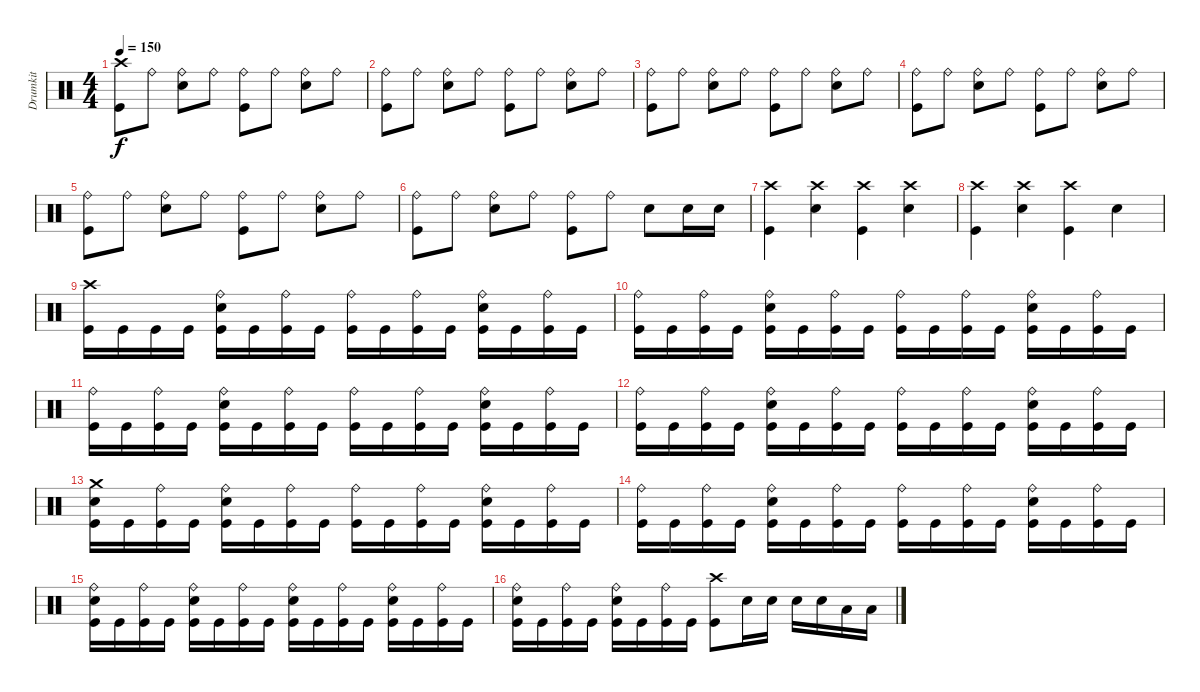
\track ("Drumkit" "Drumkit") {instrument percussion}
\staff {score}
\articulation defaults
\ts (4 4)
\tempo 150
\clef neutral
\ks c
("Crash high (hit)" "Kick (hit)").8{dy f} "Ride (bell)".8 ("Ride (bell)" "Snare (hit) 2").8 "Ride (bell)".8 ("Ride (bell)" "Kick (hit)").8 "Ride (bell)".8 ("Ride (bell)" "Snare (hit) 2").8 "Ride (bell)".8 |
("Ride (bell)" "Kick (hit)").8 "Ride (bell)".8 ("Ride (bell)" "Snare (hit) 2").8 "Ride (bell)".8 ("Ride (bell)" "Kick (hit)").8 "Ride (bell)".8 ("Ride (bell)" "Snare (hit) 2").8 "Ride (bell)".8 |
("Ride (bell)" "Kick (hit)").8 "Ride (bell)".8 ("Ride (bell)" "Snare (hit) 2").8 "Ride (bell)".8 ("Ride (bell)" "Kick (hit)").8 "Ride (bell)".8 ("Ride (bell)" "Snare (hit) 2").8 "Ride (bell)".8 |
("Ride (bell)" "Kick (hit)").8 "Ride (bell)".8 ("Ride (bell)" "Snare (hit) 2").8 "Ride (bell)".8 ("Ride (bell)" "Kick (hit)").8 "Ride (bell)".8 ("Ride (bell)" "Snare (hit) 2").8 "Ride (bell)".8 |
("Ride (bell)" "Kick (hit)").8 "Ride (bell)".8 ("Ride (bell)" "Snare (hit) 2").8 "Ride (bell)".8 ("Ride (bell)" "Kick (hit)").8 "Ride (bell)".8 ("Ride (bell)" "Snare (hit) 2").8 "Ride (bell)".8 |
("Ride (bell)" "Kick (hit)").8 "Ride (bell)".8 ("Ride (bell)" "Snare (hit) 2").8 "Ride (bell)".8 ("Ride (bell)" "Kick (hit)").8 "Ride (bell)".8 "Snare (hit) 2".8 "Snare (hit) 2".16 "Snare (hit) 2".16 |
("Crash high (hit)" "Kick (hit)").4 ("Crash high (hit)" "Snare (hit) 2").4 ("Crash high (hit)" "Kick (hit)").4 ("Crash high (hit)" "Snare (hit) 2").4 |
("Crash high (hit)" "Kick (hit)").4 ("Crash high (hit)" "Snare (hit) 2").4 ("Crash high (hit)" "Kick (hit)").4 "Snare (hit) 2".4 |
("Crash high (hit)" "Kick (hit)").16 "Kick (hit)".16 "Kick (hit)".16 "Kick (hit)".16 ("Ride (bell)" "Snare (hit) 2" "Kick (hit)").16 "Kick (hit)".16 ("Ride (bell)" "Kick (hit)").16 "Kick (hit)".16 ("Ride (bell)" "Kick (hit)").16 "Kick (hit)".16 ("Ride (bell)" "Kick (hit)").16 "Kick (hit)".16 ("Ride (bell)" "Snare (hit) 2" "Kick (hit)").16 "Kick (hit)".16 ("Ride (bell)" "Kick (hit)").16 "Kick (hit)".16 |
("Ride (bell)" "Kick (hit)").16 "Kick (hit)".16 ("Ride (bell)" "Kick (hit)").16 "Kick (hit)".16 ("Ride (bell)" "Snare (hit) 2" "Kick (hit)").16 "Kick (hit)".16 ("Ride (bell)" "Kick (hit)").16 "Kick (hit)".16 ("Ride (bell)" "Kick (hit)").16 "Kick (hit)".16 ("Ride (bell)" "Kick (hit)").16 "Kick (hit)".16 ("Ride (bell)" "Snare (hit) 2" "Kick (hit)").16 "Kick (hit)".16 ("Ride (bell)" "Kick (hit)").16 "Kick (hit)".16 |
("Ride (bell)" "Kick (hit)").16 "Kick (hit)".16 ("Ride (bell)" "Kick (hit)").16 "Kick (hit)".16 ("Ride (bell)" "Snare (hit) 2" "Kick (hit)").16 "Kick (hit)".16 ("Ride (bell)" "Kick (hit)").16 "Kick (hit)".16 ("Ride (bell)" "Kick (hit)").16 "Kick (hit)".16 ("Ride (bell)" "Kick (hit)").16 "Kick (hit)".16 ("Ride (bell)" "Snare (hit) 2" "Kick (hit)").16 "Kick (hit)".16 ("Ride (bell)" "Kick (hit)").16 "Kick (hit)".16 |
("Ride (bell)" "Kick (hit)").16 "Kick (hit)".16 ("Ride (bell)" "Kick (hit)").16 "Kick (hit)".16 ("Ride (bell)" "Snare (hit) 2" "Kick (hit)").16 "Kick (hit)".16 ("Ride (bell)" "Kick (hit)").16 "Kick (hit)".16 ("Ride (bell)" "Kick (hit)").16 "Kick (hit)".16 ("Ride (bell)" "Kick (hit)").16 "Kick (hit)".16 ("Ride (bell)" "Snare (hit) 2" "Kick (hit)").16 "Kick (hit)".16 ("Ride (bell)" "Kick (hit)").16 "Kick (hit)".16 |
("Crash medium (hit)" "Snare (hit) 2" "Kick (hit)").16 "Kick (hit)".16 ("Ride (bell)" "Kick (hit)").16 "Kick (hit)".16 ("Ride (bell)" "Snare (hit) 2" "Kick (hit)").16 "Kick (hit)".16 ("Ride (bell)" "Kick (hit)").16 "Kick (hit)".16 ("Ride (bell)" "Kick (hit)").16 "Kick (hit)".16 ("Ride (bell)" "Kick (hit)").16 "Kick (hit)".16 ("Ride (bell)" "Snare (hit) 2" "Kick (hit)").16 "Kick (hit)".16 ("Ride (bell)" "Kick (hit)").16 "Kick (hit)".16 |
("Ride (bell)" "Kick (hit)").16 "Kick (hit)".16 ("Ride (bell)" "Kick (hit)").16 "Kick (hit)".16 ("Ride (bell)" "Snare (hit) 2" "Kick (hit)").16 "Kick (hit)".16 ("Ride (bell)" "Kick (hit)").16 "Kick (hit)".16 ("Ride (bell)" "Kick (hit)").16 "Kick (hit)".16 ("Ride (bell)" "Kick (hit)").16 "Kick (hit)".16 ("Ride (bell)" "Snare (hit) 2" "Kick (hit)").16 "Kick (hit)".16 ("Ride (bell)" "Kick (hit)").16 "Kick (hit)".16 |
("Ride (bell)" "Snare (hit) 2" "Kick (hit)").16 "Kick (hit)".16 ("Ride (bell)" "Kick (hit)").16 "Kick (hit)".16 ("Ride (bell)" "Snare (hit) 2" "Kick (hit)").16 "Kick (hit)".16 ("Ride (bell)" "Kick (hit)").16 "Kick (hit)".16 ("Ride (bell)" "Snare (hit) 2" "Kick (hit)").16 "Kick (hit)".16 ("Ride (bell)" "Kick (hit)").16 "Kick (hit)".16 ("Ride (bell)" "Snare (hit) 2" "Kick (hit)").16 "Kick (hit)".16 ("Ride (bell)" "Kick (hit)").16 "Kick (hit)".16 |
("Ride (bell)" "Snare (hit) 2" "Kick (hit)").16 "Kick (hit)".16 ("Ride (bell)" "Kick (hit)").16 "Kick (hit)".16 ("Ride (bell)" "Snare (hit) 2" "Kick (hit)").16 "Kick (hit)".16 ("Ride (bell)" "Kick (hit)").16 "Kick (hit)".16 ("Crash high (hit)" "Kick (hit)").8 "Snare (hit) 2".16 "Snare (hit) 2".16 "Snare (hit) 2".16 "Snare (hit) 2".16 "Low Tom (hit)".16 "Low Tom (hit)".16
